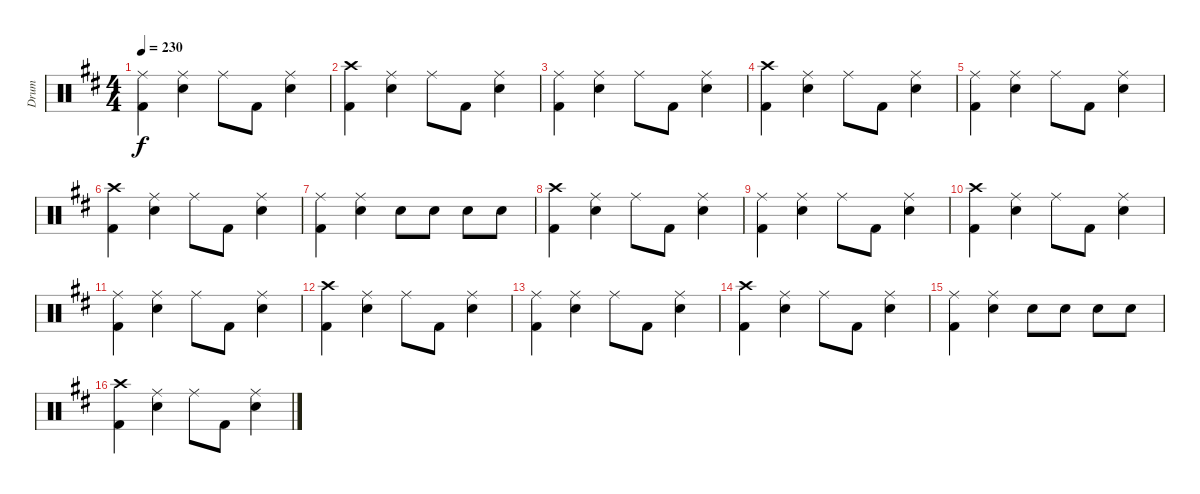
\track ("Drum" "Drum") {instrument percussion}
\staff {score}
\articulation defaults
\ts (4 4)
\tempo 230
\clef neutral
\ks d
("Ride (middle)" "Kick (hit) 2").4{dy f} ("Ride (middle)" "Snare (hit) 2").4 "Ride (middle)".8 "Kick (hit) 2".8 ("Ride (middle)" "Snare (hit) 2").4 |
("Crash high (hit)" "Kick (hit) 2").4 ("Ride (middle)" "Snare (hit) 2").4 "Ride (middle)".8 "Kick (hit) 2".8 ("Ride (middle)" "Snare (hit) 2").4 |
("Ride (middle)" "Kick (hit) 2").4 ("Ride (middle)" "Snare (hit) 2").4 "Ride (middle)".8 "Kick (hit) 2".8 ("Ride (middle)" "Snare (hit) 2").4 |
("Crash high (hit)" "Kick (hit) 2").4 ("Ride (middle)" "Snare (hit) 2").4 "Ride (middle)".8 "Kick (hit) 2".8 ("Ride (middle)" "Snare (hit) 2").4 |
("Ride (middle)" "Kick (hit) 2").4 ("Ride (middle)" "Snare (hit) 2").4 "Ride (middle)".8 "Kick (hit) 2".8 ("Ride (middle)" "Snare (hit) 2").4 |
("Crash high (hit)" "Kick (hit) 2").4 ("Ride (middle)" "Snare (hit) 2").4 "Ride (middle)".8 "Kick (hit) 2".8 ("Ride (middle)" "Snare (hit) 2").4 |
("Ride (middle)" "Kick (hit) 2").4 ("Ride (middle)" "Snare (hit) 2").4 "Snare (hit) 2".8 "Snare (hit) 2".8 "Snare (hit) 2".8 "Snare (hit) 2".8 |
("Crash high (hit)" "Kick (hit) 2").4 ("Ride (middle)" "Snare (hit) 2").4 "Ride (middle)".8 "Kick (hit) 2".8 ("Ride (middle)" "Snare (hit) 2").4 |
("Ride (middle)" "Kick (hit) 2").4 ("Ride (middle)" "Snare (hit) 2").4 "Ride (middle)".8 "Kick (hit) 2".8 ("Ride (middle)" "Snare (hit) 2").4 |
("Crash high (hit)" "Kick (hit) 2").4 ("Ride (middle)" "Snare (hit) 2").4 "Ride (middle)".8 "Kick (hit) 2".8 ("Ride (middle)" "Snare (hit) 2").4 |
("Ride (middle)" "Kick (hit) 2").4 ("Ride (middle)" "Snare (hit) 2").4 "Ride (middle)".8 "Kick (hit) 2".8 ("Ride (middle)" "Snare (hit) 2").4 |
("Crash high (hit)" "Kick (hit) 2").4 ("Ride (middle)" "Snare (hit) 2").4 "Ride (middle)".8 "Kick (hit) 2".8 ("Ride (middle)" "Snare (hit) 2").4 |
("Ride (middle)" "Kick (hit) 2").4 ("Ride (middle)" "Snare (hit) 2").4 "Ride (middle)".8 "Kick (hit) 2".8 ("Ride (middle)" "Snare (hit) 2").4 |
("Crash high (hit)" "Kick (hit) 2").4 ("Ride (middle)" "Snare (hit) 2").4 "Ride (middle)".8 "Kick (hit) 2".8 ("Ride (middle)" "Snare (hit) 2").4 |
("Ride (middle)" "Kick (hit) 2").4 ("Ride (middle)" "Snare (hit) 2").4 "Snare (hit) 2".8 "Snare (hit) 2".8 "Snare (hit) 2".8 "Snare (hit) 2".8 |
("Crash high (hit)" "Kick (hit) 2").4 ("Ride (middle)" "Snare (hit) 2").4 "Ride (middle)".8 "Kick (hit) 2".8 ("Ride (middle)" "Snare (hit) 2").4
